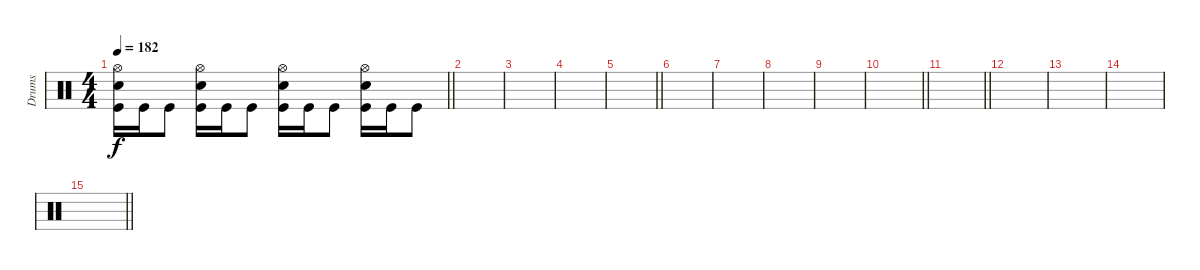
\track ("Drums" "Drums") {instrument percussion}
\staff
\articulation defaults
\ts (4 4)
\tempo 182
\clef neutral
\barLineRight lightlight
\ks c
("Hi-Hat (open)" "Electric Snare (hit)" "Kick (hit)").16{dy f} "Kick (hit)".16 "Kick (hit)".8 ("Hi-Hat (open)" "Electric Snare (hit)" "Kick (hit)").16 "Kick (hit)".16 "Kick (hit)".8 ("Hi-Hat (open)" "Electric Snare (hit)" "Kick (hit)").16 "Kick (hit)".16 "Kick (hit)".8 ("Hi-Hat (open)" "Electric Snare (hit)" "Kick (hit)").16 "Kick (hit)".16 "Kick (hit)".8 |
|
|
|
\barLineRight lightlight
|
|
|
|
|
\barLineRight lightlight
|
\barLineRight lightlight
|
\section ("" "")
|
|
|
\barLineRight lightlight
